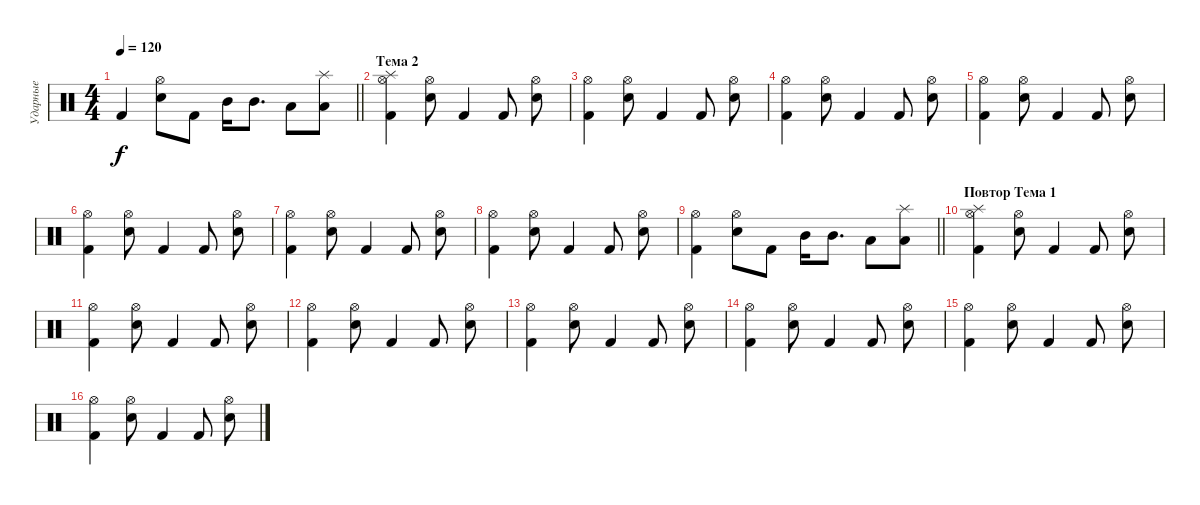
\track ("Ударные" "Ударные") {instrument percussion}
\staff {score}
\articulation defaults
\ts (4 4)
\tempo 120
\clef neutral
\barLineRight lightlight
\ks c "Kick (hit) 2".4{dy f}
("Electric Snare (hit)" "Hi-Hat (open)").8 "Kick (hit) 2".8 "Mid Tom (hit)".16 "Mid Tom (hit)".8{d} "Low Tom (hit)".8 ("Low Tom (hit)" "Splash (hit)").8 |
\section ("" "Тема 2")
("Kick (hit) 2" "Splash (hit)" "Hi-Hat (open)").4 ("Electric Snare (hit)" "Hi-Hat (open)").8 "Kick (hit) 2".4 "Kick (hit) 2".8 ("Electric Snare (hit)" "Hi-Hat (open)").8 |
("Kick (hit) 2" "Hi-Hat (open)").4 ("Electric Snare (hit)" "Hi-Hat (open)").8 "Kick (hit) 2".4 "Kick (hit) 2".8 ("Electric Snare (hit)" "Hi-Hat (open)").8 |
("Kick (hit) 2" "Hi-Hat (open)").4 ("Electric Snare (hit)" "Hi-Hat (open)").8 "Kick (hit) 2".4 "Kick (hit) 2".8 ("Electric Snare (hit)" "Hi-Hat (open)").8 |
("Kick (hit) 2" "Hi-Hat (open)").4 ("Electric Snare (hit)" "Hi-Hat (open)").8 "Kick (hit) 2".4 "Kick (hit) 2".8 ("Electric Snare (hit)" "Hi-Hat (open)").8 |
("Kick (hit) 2" "Hi-Hat (open)").4 ("Electric Snare (hit)" "Hi-Hat (open)").8 "Kick (hit) 2".4 "Kick (hit) 2".8 ("Electric Snare (hit)" "Hi-Hat (open)").8 |
("Kick (hit) 2" "Hi-Hat (open)").4 ("Electric Snare (hit)" "Hi-Hat (open)").8 "Kick (hit) 2".4 "Kick (hit) 2".8 ("Electric Snare (hit)" "Hi-Hat (open)").8 |
("Kick (hit) 2" "Hi-Hat (open)").4 ("Electric Snare (hit)" "Hi-Hat (open)").8 "Kick (hit) 2".4 "Kick (hit) 2".8 ("Electric Snare (hit)" "Hi-Hat (open)").8 |
\barLineRight lightlight
("Kick (hit) 2" "Hi-Hat (open)").4 ("Electric Snare (hit)" "Hi-Hat (open)").8 "Kick (hit) 2".8 "Mid Tom (hit)".16 "Mid Tom (hit)".8{d} "Low Tom (hit)".8 ("Low Tom (hit)" "Splash (hit)").8 |
\section ("" "Повтор Тема 1")
("Kick (hit) 2" "Splash (hit)" "Hi-Hat (open)").4 ("Electric Snare (hit)" "Hi-Hat (open)").8 "Kick (hit) 2".4 "Kick (hit) 2".8 ("Electric Snare (hit)" "Hi-Hat (open)").8 |
("Kick (hit) 2" "Hi-Hat (open)").4 ("Electric Snare (hit)" "Hi-Hat (open)").8 "Kick (hit) 2".4 "Kick (hit) 2".8 ("Electric Snare (hit)" "Hi-Hat (open)").8 |
("Kick (hit) 2" "Hi-Hat (open)").4 ("Electric Snare (hit)" "Hi-Hat (open)").8 "Kick (hit) 2".4 "Kick (hit) 2".8 ("Electric Snare (hit)" "Hi-Hat (open)").8 |
("Kick (hit) 2" "Hi-Hat (open)").4 ("Electric Snare (hit)" "Hi-Hat (open)").8 "Kick (hit) 2".4 "Kick (hit) 2".8 ("Electric Snare (hit)" "Hi-Hat (open)").8 |
("Kick (hit) 2" "Hi-Hat (open)").4 ("Electric Snare (hit)" "Hi-Hat (open)").8 "Kick (hit) 2".4 "Kick (hit) 2".8 ("Electric Snare (hit)" "Hi-Hat (open)").8 |
("Kick (hit) 2" "Hi-Hat (open)").4 ("Electric Snare (hit)" "Hi-Hat (open)").8 "Kick (hit) 2".4 "Kick (hit) 2".8 ("Electric Snare (hit)" "Hi-Hat (open)").8 |
("Kick (hit) 2" "Hi-Hat (open)").4 ("Electric Snare (hit)" "Hi-Hat (open)").8 "Kick (hit) 2".4 "Kick (hit) 2".8 ("Electric Snare (hit)" "Hi-Hat (open)").8
